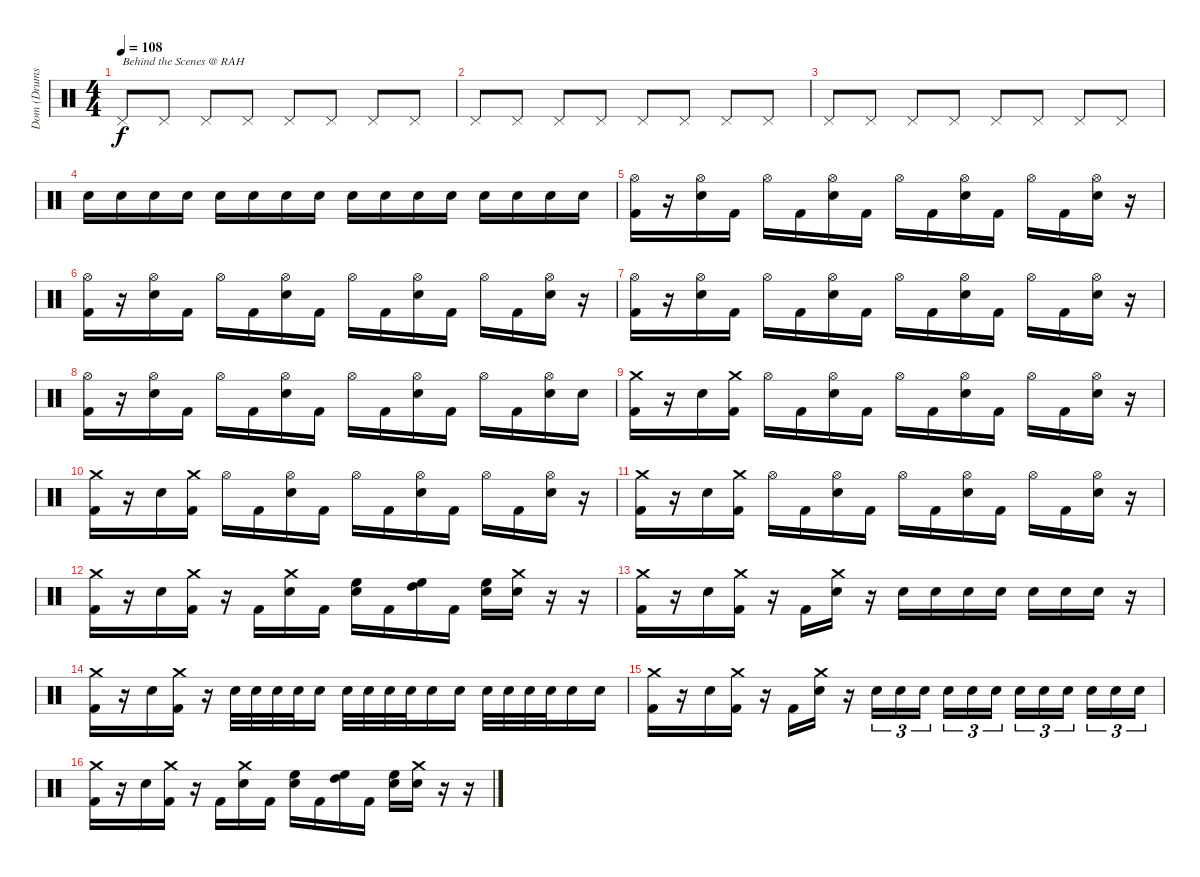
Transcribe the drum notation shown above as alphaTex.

\track ("Dom (Drums)" "Dom (Drums") {instrument percussion}
\staff {score}
\articulation defaults
\ts (4 4)
\tempo 108
\clef neutral
\ks c "Pedal Hi-Hat (hit)".8{txt "Behind the Scenes @ RAH" dy f} "Pedal Hi-Hat (hit)".8 "Pedal Hi-Hat (hit)".8 "Pedal Hi-Hat (hit)".8 "Pedal Hi-Hat (hit)".8 "Pedal Hi-Hat (hit)".8 "Pedal Hi-Hat (hit)".8 "Pedal Hi-Hat (hit)".8
|
"Pedal Hi-Hat (hit)".8 "Pedal Hi-Hat (hit)".8 "Pedal Hi-Hat (hit)".8 "Pedal Hi-Hat (hit)".8 "Pedal Hi-Hat (hit)".8 "Pedal Hi-Hat (hit)".8 "Pedal Hi-Hat (hit)".8 "Pedal Hi-Hat (hit)".8 |
"Pedal Hi-Hat (hit)".8 "Pedal Hi-Hat (hit)".8 "Pedal Hi-Hat (hit)".8 "Pedal Hi-Hat (hit)".8 "Pedal Hi-Hat (hit)".8 "Pedal Hi-Hat (hit)".8 "Pedal Hi-Hat (hit)".8 "Pedal Hi-Hat (hit)".8 |
"Snare (hit) 2".16 "Snare (hit) 2".16 "Snare (hit) 2".16 "Snare (hit) 2".16 "Snare (hit) 2".16 "Snare (hit) 2".16 "Snare (hit) 2".16 "Snare (hit) 2".16 "Snare (hit) 2".16 "Snare (hit) 2".16 "Snare (hit) 2".16 "Snare (hit) 2".16 "Snare (hit) 2".16 "Snare (hit) 2".16 "Snare (hit) 2".16 "Snare (hit) 2".16 |
("Hi-Hat (open)" "Kick (hit) 2").16 r.16 ("Hi-Hat (open)" "Snare (hit) 2").16 "Kick (hit) 2".16 "Hi-Hat (open)".16 "Kick (hit) 2".16 ("Hi-Hat (open)" "Snare (hit) 2").16 "Kick (hit) 2".16 "Hi-Hat (open)".16 "Kick (hit) 2".16 ("Hi-Hat (open)" "Snare (hit) 2").16 "Kick (hit) 2".16 "Hi-Hat (open)".16 "Kick (hit) 2".16 ("Hi-Hat (open)" "Snare (hit) 2").16 r.16 |
("Hi-Hat (open)" "Kick (hit) 2").16 r.16 ("Hi-Hat (open)" "Snare (hit) 2").16 "Kick (hit) 2".16 "Hi-Hat (open)".16 "Kick (hit) 2".16 ("Hi-Hat (open)" "Snare (hit) 2").16 "Kick (hit) 2".16 "Hi-Hat (open)".16 "Kick (hit) 2".16 ("Hi-Hat (open)" "Snare (hit) 2").16 "Kick (hit) 2".16 "Hi-Hat (open)".16 "Kick (hit) 2".16 ("Hi-Hat (open)" "Snare (hit) 2").16 r.16 |
("Hi-Hat (open)" "Kick (hit) 2").16 r.16 ("Hi-Hat (open)" "Snare (hit) 2").16 "Kick (hit) 2".16 "Hi-Hat (open)".16 "Kick (hit) 2".16 ("Hi-Hat (open)" "Snare (hit) 2").16 "Kick (hit) 2".16 "Hi-Hat (open)".16 "Kick (hit) 2".16 ("Hi-Hat (open)" "Snare (hit) 2").16 "Kick (hit) 2".16 "Hi-Hat (open)".16 "Kick (hit) 2".16 ("Hi-Hat (open)" "Snare (hit) 2").16 r.16 |
("Hi-Hat (open)" "Kick (hit) 2").16 r.16 ("Hi-Hat (open)" "Snare (hit) 2").16 "Kick (hit) 2".16 "Hi-Hat (open)".16 "Kick (hit) 2".16 ("Hi-Hat (open)" "Snare (hit) 2").16 "Kick (hit) 2".16 "Hi-Hat (open)".16 "Kick (hit) 2".16 ("Hi-Hat (open)" "Snare (hit) 2").16 "Kick (hit) 2".16 "Hi-Hat (open)".16 "Kick (hit) 2".16 ("Hi-Hat (open)" "Snare (hit) 2").16 "Snare (hit) 2".16 |
("Crash medium (hit)" "Kick (hit) 2").16 r.16 "Snare (hit) 2".16 ("Crash medium (hit)" "Kick (hit) 2").16 "Hi-Hat (open)".16 "Kick (hit) 2".16 ("Hi-Hat (open)" "Snare (hit) 2").16 "Kick (hit) 2".16 "Hi-Hat (open)".16 "Kick (hit) 2".16 ("Hi-Hat (open)" "Snare (hit) 2").16 "Kick (hit) 2".16 "Hi-Hat (open)".16 "Kick (hit) 2".16 ("Hi-Hat (open)" "Snare (hit) 2").16 r.16 |
("Crash medium (hit)" "Kick (hit) 2").16 r.16 "Snare (hit) 2".16 ("Crash medium (hit)" "Kick (hit) 2").16 "Hi-Hat (open)".16 "Kick (hit) 2".16 ("Hi-Hat (open)" "Snare (hit) 2").16 "Kick (hit) 2".16 "Hi-Hat (open)".16 "Kick (hit) 2".16 ("Hi-Hat (open)" "Snare (hit) 2").16 "Kick (hit) 2".16 "Hi-Hat (open)".16 "Kick (hit) 2".16 ("Hi-Hat (open)" "Snare (hit) 2").16 r.16 |
("Crash medium (hit)" "Kick (hit) 2").16 r.16 "Snare (hit) 2".16 ("Crash medium (hit)" "Kick (hit) 2").16 "Hi-Hat (open)".16 "Kick (hit) 2".16 ("Hi-Hat (open)" "Snare (hit) 2").16 "Kick (hit) 2".16 "Hi-Hat (open)".16 "Kick (hit) 2".16 ("Hi-Hat (open)" "Snare (hit) 2").16 "Kick (hit) 2".16 "Hi-Hat (open)".16 "Kick (hit) 2".16 ("Hi-Hat (open)" "Snare (hit) 2").16 r.16 |
("Crash medium (hit)" "Kick (hit) 2").16 r.16 "Snare (hit) 2".16 ("Crash medium (hit)" "Kick (hit) 2").16 r.16 "Kick (hit) 2".16 ("Crash medium (hit)" "Snare (hit) 2").16 "Kick (hit) 2".16 ("High Floor Tom (hit)" "Snare (hit) 2").16 "Kick (hit) 2".16 ("High Tom (hit)" "High Floor Tom (hit)").16 "Kick (hit) 2".16 ("High Floor Tom (hit)" "Snare (hit) 2").16 ("Crash medium (hit)" "Snare (hit) 2").16 r.16 r.16 |
("Crash medium (hit)" "Kick (hit) 2").16 r.16 "Snare (hit) 2".16 ("Crash medium (hit)" "Kick (hit) 2").16 r.16 "Kick (hit) 2".16 ("Crash medium (hit)" "Snare (hit) 2").16 r.16 "Snare (hit) 2".16 "Snare (hit) 2".16 "Snare (hit) 2".16 "Snare (hit) 2".16 "Snare (hit) 2".16 "Snare (hit) 2".16 "Snare (hit) 2".16 r.16 |
("Crash medium (hit)" "Kick (hit) 2").16 r.16 "Snare (hit) 2".16 ("Crash medium (hit)" "Kick (hit) 2").16 r.16 "Snare (hit) 2".32 "Snare (hit) 2".32 "Snare (hit) 2".32 "Snare (hit) 2".32 "Snare (hit) 2".16 "Snare (hit) 2".32 "Snare (hit) 2".32 "Snare (hit) 2".32 "Snare (hit) 2".32 "Snare (hit) 2".16 "Snare (hit) 2".16 "Snare (hit) 2".32 "Snare (hit) 2".32 "Snare (hit) 2".32 "Snare (hit) 2".32 "Snare (hit) 2".16 "Snare (hit) 2".16 |
("Crash medium (hit)" "Kick (hit) 2").16 r.16 "Snare (hit) 2".16 ("Crash medium (hit)" "Kick (hit) 2").16 r.16 "Kick (hit) 2".16 ("Crash medium (hit)" "Snare (hit) 2").16 r.16 "Snare (hit) 2".16{tu (3 2)} "Snare (hit) 2".16{tu (3 2)} "Snare (hit) 2".16{tu (3 2) beam splitsecondary} "Snare (hit) 2".16{tu (3 2)} "Snare (hit) 2".16{tu (3 2)} "Snare (hit) 2".16{tu (3 2)} "Snare (hit) 2".16{tu (3 2)} "Snare (hit) 2".16{tu (3 2)} "Snare (hit) 2".16{tu (3 2) beam splitsecondary} "Snare (hit) 2".16{tu (3 2)} "Snare (hit) 2".16{tu (3 2)} "Snare (hit) 2".16{tu (3 2)} |
("Crash medium (hit)" "Kick (hit) 2").16 r.16 "Snare (hit) 2".16 ("Crash medium (hit)" "Kick (hit) 2").16 r.16 "Kick (hit) 2".16 ("Crash medium (hit)" "Snare (hit) 2").16 "Kick (hit) 2".16 ("High Floor Tom (hit)" "Snare (hit) 2").16 "Kick (hit) 2".16 ("High Tom (hit)" "High Floor Tom (hit)").16 "Kick (hit) 2".16 ("High Floor Tom (hit)" "Snare (hit) 2").16 ("Crash medium (hit)" "Snare (hit) 2").16 r.16 r.16
